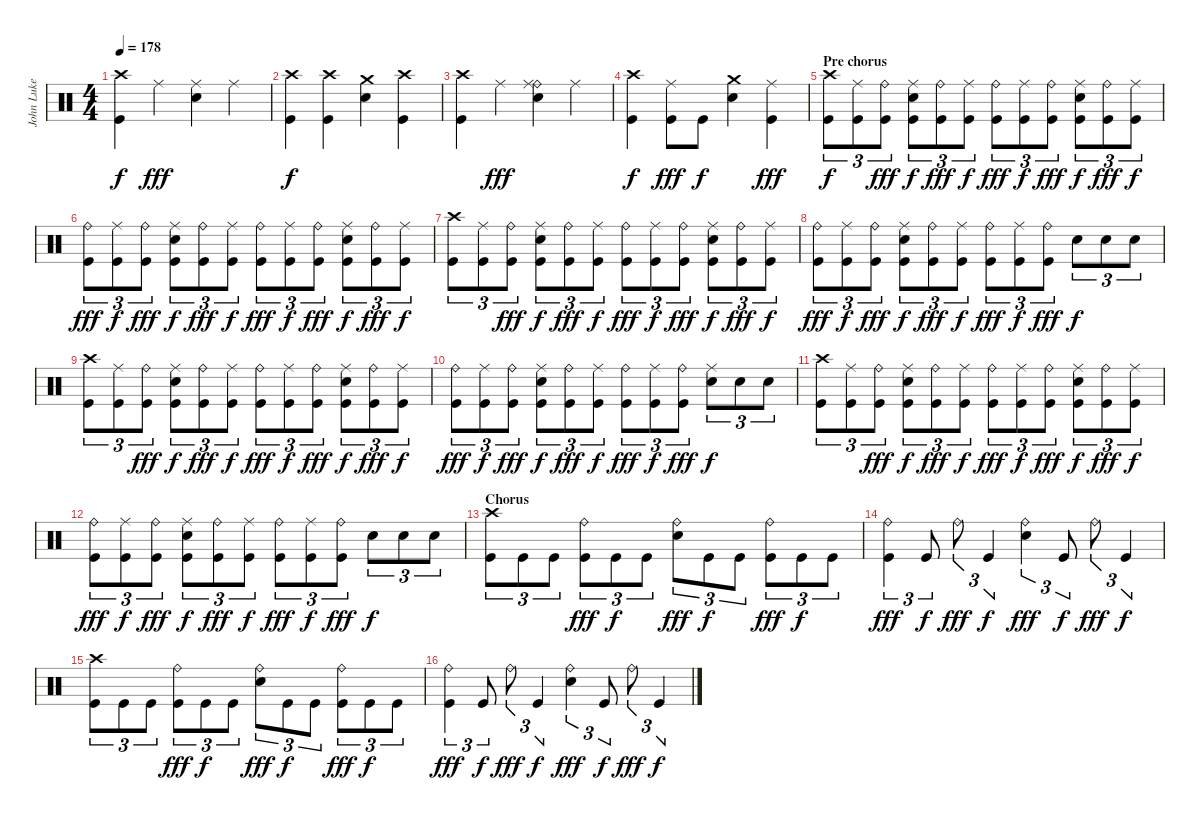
\track ("John Luke (Drums)" "John Luke ") {instrument percussion}
\staff {score}
\articulation defaults
\ts (4 4)
\tempo 178
\clef neutral
\ks c
("Crash high (hit)" "Kick (hit)").4{dy f} "Ride (middle)".4{dy fff} ("Ride (middle)" "Electric Snare (hit)").4 "Ride (middle)".4 |
("Crash high (hit)" "Kick (hit)").4{dy f} ("Crash high (hit)" "Kick (hit)").4 ("Crash medium (hit)" "Electric Snare (hit)").4 ("Crash high (hit)" "Kick (hit)").4 |
("Crash high (hit)" "Kick (hit)").4 "Ride (middle)".4{dy fff} ("Ride (bell)" "Ride (middle)" "Electric Snare (hit)").4 "Ride (middle)".4 |
("Crash high (hit)" "Kick (hit)").4{dy f} ("Ride (middle)" "Kick (hit)").8{dy fff} "Kick (hit)".8{dy f} ("Crash medium (hit)" "Electric Snare (hit)").4 ("Ride (middle)" "Kick (hit)").4{dy fff} |
\section ("" "Pre chorus")
("Crash high (hit)" "Kick (hit)").8{tu (3 2) dy f} ("Ride (middle)" "Kick (hit)").8{tu (3 2)} ("Ride (bell)" "Kick (hit)").8{tu (3 2) dy fff} ("Ride (middle)" "Electric Snare (hit)" "Kick (hit)").8{tu (3 2) dy f} ("Ride (bell)" "Kick (hit)").8{tu (3 2) dy fff} ("Ride (middle)" "Kick (hit)").8{tu (3 2) dy f} ("Ride (bell)" "Kick (hit)").8{tu (3 2) dy fff} ("Ride (middle)" "Kick (hit)").8{tu (3 2) dy f} ("Ride (bell)" "Kick (hit)").8{tu (3 2) dy fff} ("Ride (middle)" "Electric Snare (hit)" "Kick (hit)").8{tu (3 2) dy f} ("Ride (bell)" "Kick (hit)").8{tu (3 2) dy fff} ("Ride (middle)" "Kick (hit)").8{tu (3 2) dy f} |
("Ride (bell)" "Kick (hit)").8{tu (3 2) dy fff} ("Ride (middle)" "Kick (hit)").8{tu (3 2) dy f} ("Ride (bell)" "Kick (hit)").8{tu (3 2) dy fff} ("Ride (middle)" "Electric Snare (hit)" "Kick (hit)").8{tu (3 2) dy f} ("Ride (bell)" "Kick (hit)").8{tu (3 2) dy fff} ("Ride (middle)" "Kick (hit)").8{tu (3 2) dy f} ("Ride (bell)" "Kick (hit)").8{tu (3 2) dy fff} ("Ride (middle)" "Kick (hit)").8{tu (3 2) dy f} ("Ride (bell)" "Kick (hit)").8{tu (3 2) dy fff} ("Ride (middle)" "Electric Snare (hit)" "Kick (hit)").8{tu (3 2) dy f} ("Ride (bell)" "Kick (hit)").8{tu (3 2) dy fff} ("Ride (middle)" "Kick (hit)").8{tu (3 2) dy f} |
("Crash high (hit)" "Kick (hit)").8{tu (3 2)} ("Ride (middle)" "Kick (hit)").8{tu (3 2)} ("Ride (bell)" "Kick (hit)").8{tu (3 2) dy fff} ("Ride (middle)" "Electric Snare (hit)" "Kick (hit)").8{tu (3 2) dy f} ("Ride (bell)" "Kick (hit)").8{tu (3 2) dy fff} ("Ride (middle)" "Kick (hit)").8{tu (3 2) dy f} ("Ride (bell)" "Kick (hit)").8{tu (3 2) dy fff} ("Ride (middle)" "Kick (hit)").8{tu (3 2) dy f} ("Ride (bell)" "Kick (hit)").8{tu (3 2) dy fff} ("Ride (middle)" "Electric Snare (hit)" "Kick (hit)").8{tu (3 2) dy f} ("Ride (bell)" "Kick (hit)").8{tu (3 2) dy fff} ("Ride (middle)" "Kick (hit)").8{tu (3 2) dy f} |
("Ride (bell)" "Kick (hit)").8{tu (3 2) dy fff} ("Ride (middle)" "Kick (hit)").8{tu (3 2) dy f} ("Ride (bell)" "Kick (hit)").8{tu (3 2) dy fff} ("Ride (middle)" "Electric Snare (hit)" "Kick (hit)").8{tu (3 2) dy f} ("Ride (bell)" "Kick (hit)").8{tu (3 2) dy fff} ("Ride (middle)" "Kick (hit)").8{tu (3 2) dy f} ("Ride (bell)" "Kick (hit)").8{tu (3 2) dy fff} ("Ride (middle)" "Kick (hit)").8{tu (3 2) dy f} ("Ride (bell)" "Kick (hit)").8{tu (3 2) dy fff} "Electric Snare (hit)".8{tu (3 2) dy f} "Electric Snare (hit)".8{tu (3 2)} "Electric Snare (hit)".8{tu (3 2)} |
("Crash high (hit)" "Kick (hit)").8{tu (3 2)} ("Ride (middle)" "Kick (hit)").8{tu (3 2)} ("Ride (bell)" "Kick (hit)").8{tu (3 2) dy fff} ("Ride (middle)" "Electric Snare (hit)" "Kick (hit)").8{tu (3 2) dy f} ("Ride (bell)" "Kick (hit)").8{tu (3 2) dy fff} ("Ride (middle)" "Kick (hit)").8{tu (3 2) dy f} ("Ride (bell)" "Kick (hit)").8{tu (3 2) dy fff} ("Ride (middle)" "Kick (hit)").8{tu (3 2) dy f} ("Ride (bell)" "Kick (hit)").8{tu (3 2) dy fff} ("Ride (middle)" "Electric Snare (hit)" "Kick (hit)").8{tu (3 2) dy f} ("Ride (bell)" "Kick (hit)").8{tu (3 2) dy fff} ("Ride (middle)" "Kick (hit)").8{tu (3 2) dy f} |
("Ride (bell)" "Kick (hit)").8{tu (3 2) dy fff} ("Ride (middle)" "Kick (hit)").8{tu (3 2) dy f} ("Ride (bell)" "Kick (hit)").8{tu (3 2) dy fff} ("Ride (middle)" "Electric Snare (hit)" "Kick (hit)").8{tu (3 2) dy f} ("Ride (bell)" "Kick (hit)").8{tu (3 2) dy fff} ("Ride (middle)" "Kick (hit)").8{tu (3 2) dy f} ("Ride (bell)" "Kick (hit)").8{tu (3 2) dy fff} ("Ride (middle)" "Kick (hit)").8{tu (3 2) dy f} ("Ride (bell)" "Kick (hit)").8{tu (3 2) dy fff} ("Ride (middle)" "Electric Snare (hit)").8{tu (3 2) dy f} "Electric Snare (hit)".8{tu (3 2)} "Electric Snare (hit)".8{tu (3 2)} |
("Crash high (hit)" "Kick (hit)").8{tu (3 2)} ("Ride (middle)" "Kick (hit)").8{tu (3 2)} ("Ride (bell)" "Kick (hit)").8{tu (3 2) dy fff} ("Ride (middle)" "Electric Snare (hit)" "Kick (hit)").8{tu (3 2) dy f} ("Ride (bell)" "Kick (hit)").8{tu (3 2) dy fff} ("Ride (middle)" "Kick (hit)").8{tu (3 2) dy f} ("Ride (bell)" "Kick (hit)").8{tu (3 2) dy fff} ("Ride (middle)" "Kick (hit)").8{tu (3 2) dy f} ("Ride (bell)" "Kick (hit)").8{tu (3 2) dy fff} ("Ride (middle)" "Electric Snare (hit)" "Kick (hit)").8{tu (3 2) dy f} ("Ride (bell)" "Kick (hit)").8{tu (3 2) dy fff} ("Ride (middle)" "Kick (hit)").8{tu (3 2) dy f} |
("Ride (bell)" "Kick (hit)").8{tu (3 2) dy fff} ("Ride (middle)" "Kick (hit)").8{tu (3 2) dy f} ("Ride (bell)" "Kick (hit)").8{tu (3 2) dy fff} ("Ride (middle)" "Electric Snare (hit)" "Kick (hit)").8{tu (3 2) dy f} ("Ride (bell)" "Kick (hit)").8{tu (3 2) dy fff} ("Ride (middle)" "Kick (hit)").8{tu (3 2) dy f} ("Ride (bell)" "Kick (hit)").8{tu (3 2) dy fff} ("Ride (middle)" "Kick (hit)").8{tu (3 2) dy f} ("Ride (bell)" "Kick (hit)").8{tu (3 2) dy fff} "Electric Snare (hit)".8{tu (3 2) dy f} "Electric Snare (hit)".8{tu (3 2)} "Electric Snare (hit)".8{tu (3 2)} |
\section ("" "Chorus")
("Crash high (hit)" "Kick (hit)").8{tu (3 2)} "Kick (hit)".8{tu (3 2)} "Kick (hit)".8{tu (3 2)} ("Ride (bell)" "Kick (hit)").8{tu (3 2) dy fff} "Kick (hit)".8{tu (3 2) dy f} "Kick (hit)".8{tu (3 2)} ("Ride (bell)" "Electric Snare (hit)").8{tu (3 2) dy fff} "Kick (hit)".8{tu (3 2) dy f} "Kick (hit)".8{tu (3 2)} ("Ride (bell)" "Kick (hit)").8{tu (3 2) dy fff} "Kick (hit)".8{tu (3 2) dy f} "Kick (hit)".8{tu (3 2)} |
("Ride (bell)" "Kick (hit)").4{tu (3 2) dy fff} "Kick (hit)".8{tu (3 2) dy f} "Ride (bell)".8{tu (3 2) dy fff} "Kick (hit)".4{tu (3 2) dy f} ("Ride (bell)" "Electric Snare (hit)").4{tu (3 2) dy fff} "Kick (hit)".8{tu (3 2) dy f} "Ride (bell)".8{tu (3 2) dy fff} "Kick (hit)".4{tu (3 2) dy f} |
("Crash high (hit)" "Kick (hit)").8{tu (3 2)} "Kick (hit)".8{tu (3 2)} "Kick (hit)".8{tu (3 2)} ("Ride (bell)" "Kick (hit)").8{tu (3 2) dy fff} "Kick (hit)".8{tu (3 2) dy f} "Kick (hit)".8{tu (3 2)} ("Ride (bell)" "Electric Snare (hit)").8{tu (3 2) dy fff} "Kick (hit)".8{tu (3 2) dy f} "Kick (hit)".8{tu (3 2)} ("Ride (bell)" "Kick (hit)").8{tu (3 2) dy fff} "Kick (hit)".8{tu (3 2) dy f} "Kick (hit)".8{tu (3 2)} |
("Ride (bell)" "Kick (hit)").4{tu (3 2) dy fff} "Kick (hit)".8{tu (3 2) dy f} "Ride (bell)".8{tu (3 2) dy fff} "Kick (hit)".4{tu (3 2) dy f} ("Ride (bell)" "Electric Snare (hit)").4{tu (3 2) dy fff} "Kick (hit)".8{tu (3 2) dy f} "Ride (bell)".8{tu (3 2) dy fff} "Kick (hit)".4{tu (3 2) dy f}
